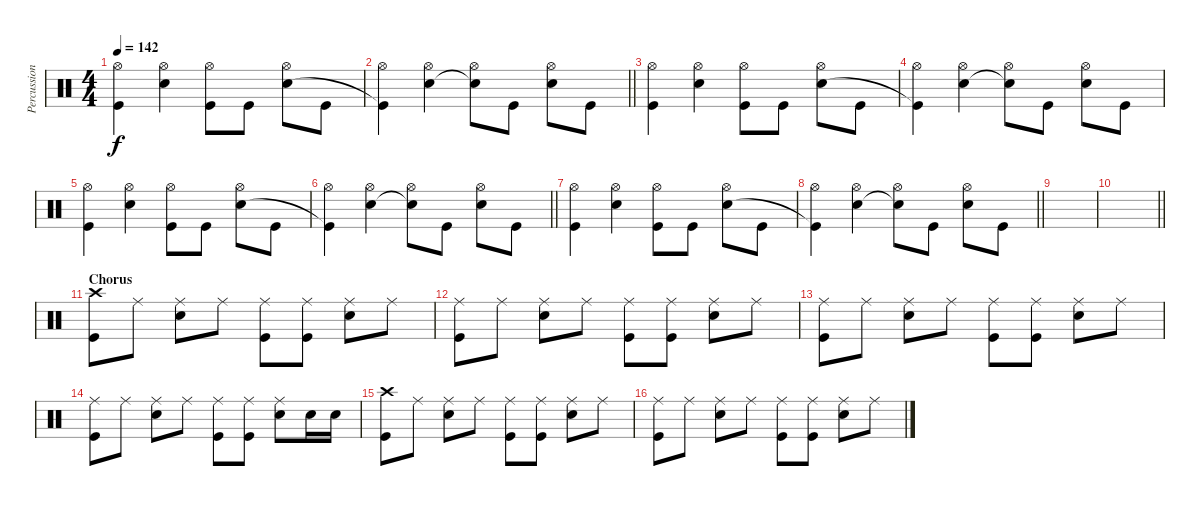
\track ("Percussion" "Percussion") {instrument percussion}
\staff {score}
\articulation defaults
\ts (4 4)
\tempo 142
\clef neutral
\ks c
("Kick (hit)" "Hi-Hat (open)").4{dy f} ("Snare (hit) 2" "Hi-Hat (open)").4 ("Hi-Hat (open)" "Kick (hit)").8 "Kick (hit)".8 ("Hi-Hat (open)" "Snare (hit) 2").8 "Kick (hit)".8 |
\barLineRight lightlight
("Hi-Hat (open)" "Kick (hit)"{t}).4 ("Hi-Hat (open)" "Snare (hit) 2").4 ("Hi-Hat (open)" "Snare (hit) 2"{t}).8 "Kick (hit)".8 ("Hi-Hat (open)" "Snare (hit) 2").8 "Kick (hit)".8 |
("Kick (hit)" "Hi-Hat (open)").4 ("Snare (hit) 2" "Hi-Hat (open)").4 ("Hi-Hat (open)" "Kick (hit)").8 "Kick (hit)".8 ("Hi-Hat (open)" "Snare (hit) 2").8 "Kick (hit)".8 |
("Hi-Hat (open)" "Kick (hit)"{t}).4 ("Hi-Hat (open)" "Snare (hit) 2").4 ("Hi-Hat (open)" "Snare (hit) 2"{t}).8 "Kick (hit)".8 ("Hi-Hat (open)" "Snare (hit) 2").8 "Kick (hit)".8 |
("Kick (hit)" "Hi-Hat (open)").4 ("Snare (hit) 2" "Hi-Hat (open)").4 ("Hi-Hat (open)" "Kick (hit)").8 "Kick (hit)".8 ("Hi-Hat (open)" "Snare (hit) 2").8 "Kick (hit)".8 |
\barLineRight lightlight
("Hi-Hat (open)" "Kick (hit)"{t}).4 ("Hi-Hat (open)" "Snare (hit) 2").4 ("Hi-Hat (open)" "Snare (hit) 2"{t}).8 "Kick (hit)".8 ("Hi-Hat (open)" "Snare (hit) 2").8 "Kick (hit)".8 |
("Kick (hit)" "Hi-Hat (open)").4 ("Snare (hit) 2" "Hi-Hat (open)").4 ("Hi-Hat (open)" "Kick (hit)").8 "Kick (hit)".8 ("Hi-Hat (open)" "Snare (hit) 2").8 "Kick (hit)".8 |
\barLineRight lightlight
("Hi-Hat (open)" "Kick (hit)"{t}).4 ("Hi-Hat (open)" "Snare (hit) 2").4 ("Hi-Hat (open)" "Snare (hit) 2"{t}).8 "Kick (hit)".8 ("Hi-Hat (open)" "Snare (hit) 2").8 "Kick (hit)".8 |
|
\barLineRight lightlight
|
\section ("" "Chorus")
("Crash high (hit)" "Kick (hit)").8 "Ride (middle)".8 ("Ride (middle)" "Snare (hit) 2").8 "Ride (middle)".8 ("Ride (middle)" "Kick (hit)").8 ("Ride (middle)" "Kick (hit)").8 ("Ride (middle)" "Snare (hit) 2").8 "Ride (middle)".8 |
("Ride (middle)" "Kick (hit)").8 "Ride (middle)".8 ("Ride (middle)" "Snare (hit) 2").8 "Ride (middle)".8 ("Ride (middle)" "Kick (hit)").8 ("Ride (middle)" "Kick (hit)").8 ("Ride (middle)" "Snare (hit) 2").8 "Ride (middle)".8 |
("Ride (middle)" "Kick (hit)").8 "Ride (middle)".8 ("Ride (middle)" "Snare (hit) 2").8 "Ride (middle)".8 ("Ride (middle)" "Kick (hit)").8 ("Ride (middle)" "Kick (hit)").8 ("Ride (middle)" "Snare (hit) 2").8 "Ride (middle)".8 |
("Ride (middle)" "Kick (hit)").8 "Ride (middle)".8 ("Ride (middle)" "Snare (hit) 2").8 "Ride (middle)".8 ("Ride (middle)" "Kick (hit)").8 ("Ride (middle)" "Kick (hit)").8 ("Ride (middle)" "Snare (hit) 2").8 "Snare (hit) 2".16 "Snare (hit) 2".16 |
("Crash high (hit)" "Kick (hit)").8 "Ride (middle)".8 ("Ride (middle)" "Snare (hit) 2").8 "Ride (middle)".8 ("Ride (middle)" "Kick (hit)").8 ("Ride (middle)" "Kick (hit)").8 ("Ride (middle)" "Snare (hit) 2").8 "Ride (middle)".8 |
("Ride (middle)" "Kick (hit)").8 "Ride (middle)".8 ("Ride (middle)" "Snare (hit) 2").8 "Ride (middle)".8 ("Ride (middle)" "Kick (hit)").8 ("Ride (middle)" "Kick (hit)").8 ("Ride (middle)" "Snare (hit) 2").8 "Ride (middle)".8
